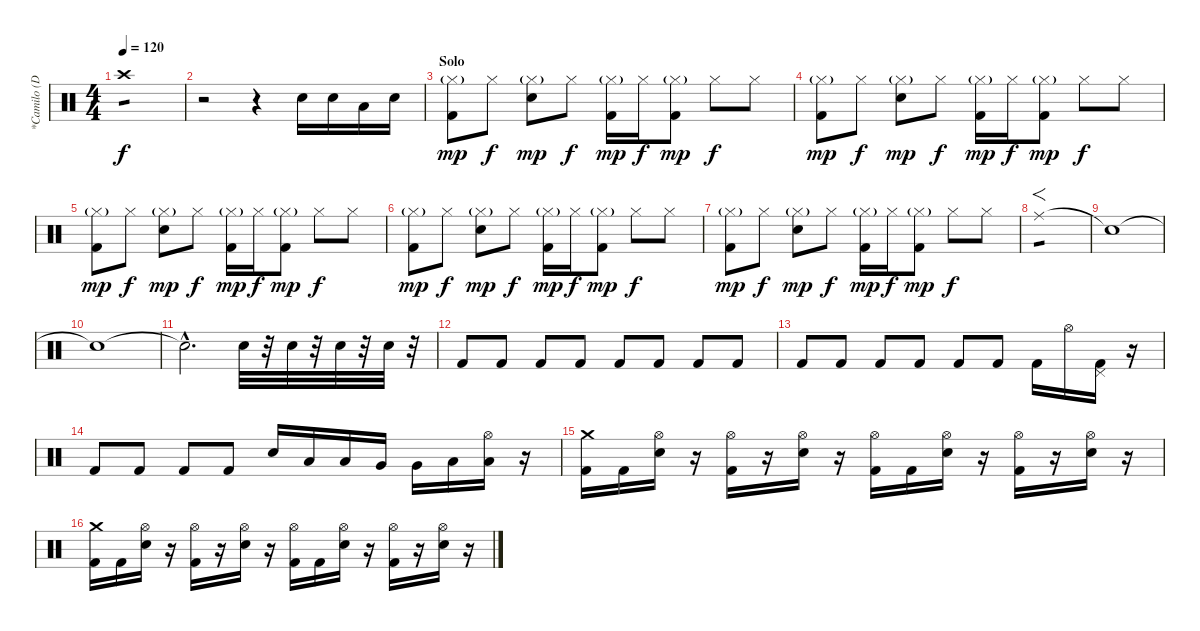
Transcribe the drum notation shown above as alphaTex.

\track ("*Camilo (Drums)" "*Camilo (D") {instrument percussion}
\staff {score}
\articulation defaults
\ts (4 4)
\tempo 120
\clef neutral
\ks c "Crash high (hit)".1{tp 1 dy f}
|
r.2{volume 14} r.4 "Electric Snare (hit)".16 "Electric Snare (hit)".16 "Low Tom (hit)".16 "Electric Snare (hit)".16 |
\section ("" "Solo")
("Hi-Hat (closed)"{g} "Kick (hit) 2").8{dy mp} "Hi-Hat (closed)".8{dy f} ("Hi-Hat (closed)"{g} "Electric Snare (hit)").8{dy mp} "Hi-Hat (closed)".8{dy f} ("Hi-Hat (closed)"{g} "Kick (hit) 2").16{dy mp} "Hi-Hat (closed)".16{dy f} ("Hi-Hat (closed)"{g} "Kick (hit) 2").8{dy mp} "Hi-Hat (closed)".8{dy f} "Hi-Hat (closed)".8 |
("Hi-Hat (closed)"{g} "Kick (hit) 2").8{dy mp} "Hi-Hat (closed)".8{dy f} ("Hi-Hat (closed)"{g} "Electric Snare (hit)").8{dy mp} "Hi-Hat (closed)".8{dy f} ("Hi-Hat (closed)"{g} "Kick (hit) 2").16{dy mp} "Hi-Hat (closed)".16{dy f} ("Hi-Hat (closed)"{g} "Kick (hit) 2").8{dy mp} "Hi-Hat (closed)".8{dy f} "Hi-Hat (closed)".8 |
("Hi-Hat (closed)"{g} "Kick (hit) 2").8{dy mp} "Hi-Hat (closed)".8{dy f} ("Hi-Hat (closed)"{g} "Electric Snare (hit)").8{dy mp} "Hi-Hat (closed)".8{dy f} ("Hi-Hat (closed)"{g} "Kick (hit) 2").16{dy mp} "Hi-Hat (closed)".16{dy f} ("Hi-Hat (closed)"{g} "Kick (hit) 2").8{dy mp} "Hi-Hat (closed)".8{dy f} "Hi-Hat (closed)".8 |
("Hi-Hat (closed)"{g} "Kick (hit) 2").8{dy mp} "Hi-Hat (closed)".8{dy f} ("Hi-Hat (closed)"{g} "Electric Snare (hit)").8{dy mp} "Hi-Hat (closed)".8{dy f} ("Hi-Hat (closed)"{g} "Kick (hit) 2").16{dy mp} "Hi-Hat (closed)".16{dy f} ("Hi-Hat (closed)"{g} "Kick (hit) 2").8{dy mp} "Hi-Hat (closed)".8{dy f} "Hi-Hat (closed)".8 |
("Hi-Hat (closed)"{g} "Kick (hit) 2").8{dy mp} "Hi-Hat (closed)".8{dy f} ("Hi-Hat (closed)"{g} "Electric Snare (hit)").8{dy mp} "Hi-Hat (closed)".8{dy f} ("Hi-Hat (closed)"{g} "Kick (hit) 2").16{dy mp} "Hi-Hat (closed)".16{dy f} ("Hi-Hat (closed)"{g} "Kick (hit) 2").8{dy mp} "Hi-Hat (closed)".8{dy f} "Hi-Hat (closed)".8 |
"Ride (middle)".1{f tp 1} |
"Snare (hit)"{t}.1 |
"Snare (hit)"{t}.1 |
"Snare (hit)"{hac t}.2{d} "Electric Snare (hit)".32 r.32 "Electric Snare (hit)".32 r.32 "Electric Snare (hit)".32 r.32 "Electric Snare (hit)".32 r.32 |
"Kick (hit) 2".8{volume 14} "Kick (hit) 2".8 "Kick (hit) 2".8 "Kick (hit) 2".8 "Kick (hit) 2".8 "Kick (hit) 2".8 "Kick (hit) 2".8 "Kick (hit) 2".8 |
"Kick (hit) 2".8 "Kick (hit) 2".8 "Kick (hit) 2".8 "Kick (hit) 2".8 "Kick (hit) 2".8 "Kick (hit) 2".8 "Kick (hit) 2".16 "Hi-Hat (open)".16 ("Pedal Hi-Hat (hit)" "Kick (hit) 2").16 r.16 |
"Kick (hit) 2".8 "Kick (hit) 2".8 "Kick (hit) 2".8 "Kick (hit) 2".8 "Electric Snare (hit)".16 "Low Tom (hit)".16 "Low Tom (hit)".16 "Very Low Tom (hit)".16 "Very Low Tom (hit)".16 "Low Floor Tom (hit)".16 ("Hi-Hat (open)" "Low Floor Tom (hit)").16 r.16 |
("Crash medium (hit)" "Kick (hit) 2").16 "Kick (hit) 2".16 ("Hi-Hat (open)" "Electric Snare (hit)").16 r.16 ("Hi-Hat (open)" "Kick (hit) 2").16 r.16 ("Hi-Hat (open)" "Electric Snare (hit)").16 r.16 ("Hi-Hat (open)" "Kick (hit) 2").16 "Kick (hit) 2".16 ("Hi-Hat (open)" "Electric Snare (hit)").16 r.16 ("Hi-Hat (open)" "Kick (hit) 2").16 r.16 ("Hi-Hat (open)" "Electric Snare (hit)").16 r.16 |
("Crash medium (hit)" "Kick (hit) 2").16 "Kick (hit) 2".16 ("Hi-Hat (open)" "Electric Snare (hit)").16 r.16 ("Hi-Hat (open)" "Kick (hit) 2").16 r.16 ("Hi-Hat (open)" "Electric Snare (hit)").16 r.16 ("Hi-Hat (open)" "Kick (hit) 2").16 "Kick (hit) 2".16 ("Hi-Hat (open)" "Electric Snare (hit)").16 r.16 ("Hi-Hat (open)" "Kick (hit) 2").16 r.16 ("Hi-Hat (open)" "Electric Snare (hit)").16 r.16
